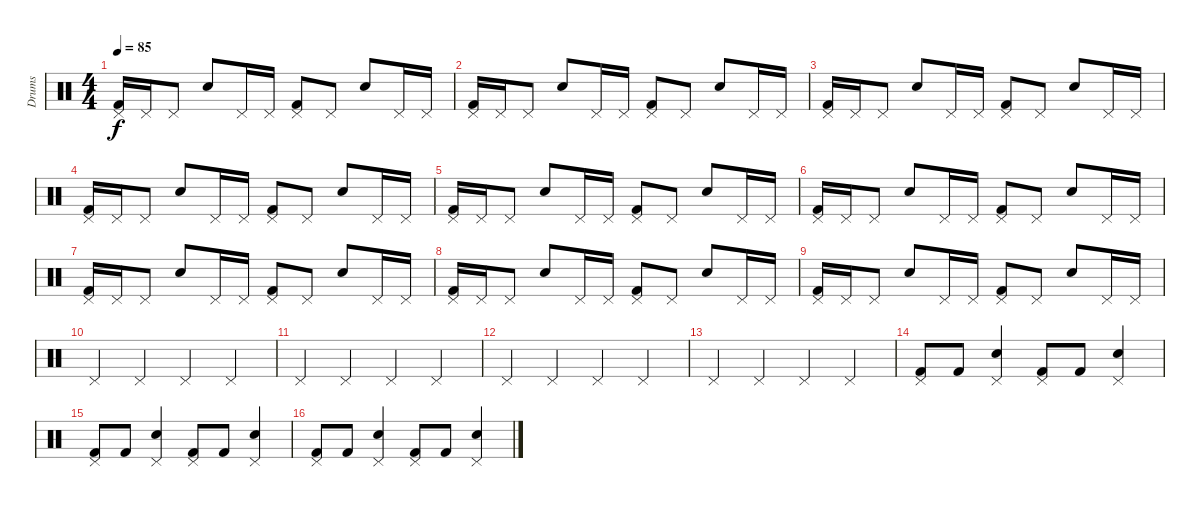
\track ("Drums" "Drums") {instrument percussion}
\staff {score}
\articulation defaults
\ts (4 4)
\tempo 85
\clef neutral
\ks c
("Pedal Hi-Hat (hit)" "Kick (hit) 2").16{dy f} "Pedal Hi-Hat (hit)".16 "Pedal Hi-Hat (hit)".8 "Snare (hit) 2".8 "Pedal Hi-Hat (hit)".16 "Pedal Hi-Hat (hit)".16 ("Pedal Hi-Hat (hit)" "Kick (hit) 2").8 "Pedal Hi-Hat (hit)".8 "Snare (hit) 2".8 "Pedal Hi-Hat (hit)".16 "Pedal Hi-Hat (hit)".16 |
("Pedal Hi-Hat (hit)" "Kick (hit) 2").16 "Pedal Hi-Hat (hit)".16 "Pedal Hi-Hat (hit)".8 "Snare (hit) 2".8 "Pedal Hi-Hat (hit)".16 "Pedal Hi-Hat (hit)".16 ("Pedal Hi-Hat (hit)" "Kick (hit) 2").8 "Pedal Hi-Hat (hit)".8 "Snare (hit) 2".8 "Pedal Hi-Hat (hit)".16 "Pedal Hi-Hat (hit)".16 |
("Pedal Hi-Hat (hit)" "Kick (hit) 2").16 "Pedal Hi-Hat (hit)".16 "Pedal Hi-Hat (hit)".8 "Snare (hit) 2".8 "Pedal Hi-Hat (hit)".16 "Pedal Hi-Hat (hit)".16 ("Pedal Hi-Hat (hit)" "Kick (hit) 2").8 "Pedal Hi-Hat (hit)".8 "Snare (hit) 2".8 "Pedal Hi-Hat (hit)".16 "Pedal Hi-Hat (hit)".16 |
("Pedal Hi-Hat (hit)" "Kick (hit) 2").16 "Pedal Hi-Hat (hit)".16 "Pedal Hi-Hat (hit)".8 "Snare (hit) 2".8 "Pedal Hi-Hat (hit)".16 "Pedal Hi-Hat (hit)".16 ("Pedal Hi-Hat (hit)" "Kick (hit) 2").8 "Pedal Hi-Hat (hit)".8 "Snare (hit) 2".8 "Pedal Hi-Hat (hit)".16 "Pedal Hi-Hat (hit)".16 |
("Pedal Hi-Hat (hit)" "Kick (hit) 2").16 "Pedal Hi-Hat (hit)".16 "Pedal Hi-Hat (hit)".8 "Snare (hit) 2".8 "Pedal Hi-Hat (hit)".16 "Pedal Hi-Hat (hit)".16 ("Pedal Hi-Hat (hit)" "Kick (hit) 2").8 "Pedal Hi-Hat (hit)".8 "Snare (hit) 2".8 "Pedal Hi-Hat (hit)".16 "Pedal Hi-Hat (hit)".16 |
("Pedal Hi-Hat (hit)" "Kick (hit) 2").16 "Pedal Hi-Hat (hit)".16 "Pedal Hi-Hat (hit)".8 "Snare (hit) 2".8 "Pedal Hi-Hat (hit)".16 "Pedal Hi-Hat (hit)".16 ("Pedal Hi-Hat (hit)" "Kick (hit) 2").8 "Pedal Hi-Hat (hit)".8 "Snare (hit) 2".8 "Pedal Hi-Hat (hit)".16 "Pedal Hi-Hat (hit)".16 |
("Pedal Hi-Hat (hit)" "Kick (hit) 2").16 "Pedal Hi-Hat (hit)".16 "Pedal Hi-Hat (hit)".8 "Snare (hit) 2".8 "Pedal Hi-Hat (hit)".16 "Pedal Hi-Hat (hit)".16 ("Pedal Hi-Hat (hit)" "Kick (hit) 2").8 "Pedal Hi-Hat (hit)".8 "Snare (hit) 2".8 "Pedal Hi-Hat (hit)".16 "Pedal Hi-Hat (hit)".16 |
("Pedal Hi-Hat (hit)" "Kick (hit) 2").16 "Pedal Hi-Hat (hit)".16 "Pedal Hi-Hat (hit)".8 "Snare (hit) 2".8 "Pedal Hi-Hat (hit)".16 "Pedal Hi-Hat (hit)".16 ("Pedal Hi-Hat (hit)" "Kick (hit) 2").8 "Pedal Hi-Hat (hit)".8 "Snare (hit) 2".8 "Pedal Hi-Hat (hit)".16 "Pedal Hi-Hat (hit)".16 |
("Pedal Hi-Hat (hit)" "Kick (hit) 2").16 "Pedal Hi-Hat (hit)".16 "Pedal Hi-Hat (hit)".8 "Snare (hit) 2".8 "Pedal Hi-Hat (hit)".16 "Pedal Hi-Hat (hit)".16 ("Pedal Hi-Hat (hit)" "Kick (hit) 2").8 "Pedal Hi-Hat (hit)".8 "Snare (hit) 2".8 "Pedal Hi-Hat (hit)".16 "Pedal Hi-Hat (hit)".16 |
"Pedal Hi-Hat (hit)".4 "Pedal Hi-Hat (hit)".4 "Pedal Hi-Hat (hit)".4 "Pedal Hi-Hat (hit)".4 |
"Pedal Hi-Hat (hit)".4 "Pedal Hi-Hat (hit)".4 "Pedal Hi-Hat (hit)".4 "Pedal Hi-Hat (hit)".4 |
"Pedal Hi-Hat (hit)".4 "Pedal Hi-Hat (hit)".4 "Pedal Hi-Hat (hit)".4 "Pedal Hi-Hat (hit)".4 |
"Pedal Hi-Hat (hit)".4 "Pedal Hi-Hat (hit)".4 "Pedal Hi-Hat (hit)".4 "Pedal Hi-Hat (hit)".4 |
("Pedal Hi-Hat (hit)" "Kick (hit) 2").8 "Kick (hit) 2".8 ("Pedal Hi-Hat (hit)" "Snare (hit) 2").4 ("Pedal Hi-Hat (hit)" "Kick (hit) 2").8 "Kick (hit) 2".8 ("Pedal Hi-Hat (hit)" "Snare (hit) 2").4 |
("Pedal Hi-Hat (hit)" "Kick (hit) 2").8 "Kick (hit) 2".8 ("Pedal Hi-Hat (hit)" "Snare (hit) 2").4 ("Pedal Hi-Hat (hit)" "Kick (hit) 2").8 "Kick (hit) 2".8 ("Pedal Hi-Hat (hit)" "Snare (hit) 2").4 |
("Pedal Hi-Hat (hit)" "Kick (hit) 2").8 "Kick (hit) 2".8 ("Pedal Hi-Hat (hit)" "Snare (hit) 2").4 ("Pedal Hi-Hat (hit)" "Kick (hit) 2").8 "Kick (hit) 2".8 ("Pedal Hi-Hat (hit)" "Snare (hit) 2").4
